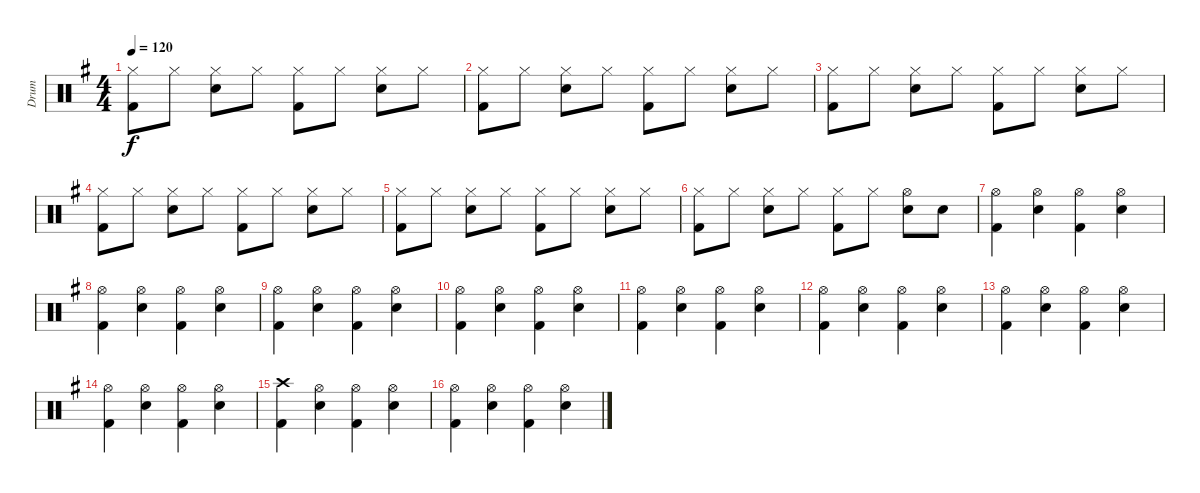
\track ("Drum" "Drum") {instrument percussion}
\staff {score}
\articulation defaults
\ts (4 4)
\tempo 120
\clef neutral
\ks g
("Hi-Hat (closed)" "Kick (hit) 2").8{dy f} "Hi-Hat (closed)".8 ("Hi-Hat (closed)" "Electric Snare (hit)").8 "Hi-Hat (closed)".8 ("Hi-Hat (closed)" "Kick (hit) 2").8 "Hi-Hat (closed)".8 ("Hi-Hat (closed)" "Electric Snare (hit)").8 "Hi-Hat (closed)".8 |
("Hi-Hat (closed)" "Kick (hit) 2").8 "Hi-Hat (closed)".8 ("Hi-Hat (closed)" "Electric Snare (hit)").8 "Hi-Hat (closed)".8 ("Hi-Hat (closed)" "Kick (hit) 2").8 "Hi-Hat (closed)".8 ("Hi-Hat (closed)" "Electric Snare (hit)").8 "Hi-Hat (closed)".8 |
("Hi-Hat (closed)" "Kick (hit) 2").8 "Hi-Hat (closed)".8 ("Hi-Hat (closed)" "Electric Snare (hit)").8 "Hi-Hat (closed)".8 ("Hi-Hat (closed)" "Kick (hit) 2").8 "Hi-Hat (closed)".8 ("Hi-Hat (closed)" "Electric Snare (hit)").8 "Hi-Hat (closed)".8 |
("Hi-Hat (closed)" "Kick (hit) 2").8 "Hi-Hat (closed)".8 ("Hi-Hat (closed)" "Electric Snare (hit)").8 "Hi-Hat (closed)".8 ("Hi-Hat (closed)" "Kick (hit) 2").8 "Hi-Hat (closed)".8 ("Hi-Hat (closed)" "Electric Snare (hit)").8 "Hi-Hat (closed)".8 |
("Hi-Hat (closed)" "Kick (hit) 2").8 "Hi-Hat (closed)".8 ("Hi-Hat (closed)" "Electric Snare (hit)").8 "Hi-Hat (closed)".8 ("Hi-Hat (closed)" "Kick (hit) 2").8 "Hi-Hat (closed)".8 ("Hi-Hat (closed)" "Electric Snare (hit)").8 "Hi-Hat (closed)".8 |
("Hi-Hat (closed)" "Kick (hit) 2").8 "Hi-Hat (closed)".8 ("Hi-Hat (closed)" "Electric Snare (hit)").8 "Hi-Hat (closed)".8 ("Hi-Hat (closed)" "Kick (hit) 2").8 "Hi-Hat (closed)".8 ("Hi-Hat (open)" "Electric Snare (hit)").8 "Electric Snare (hit)".8 |
("Hi-Hat (open)" "Kick (hit) 2").4 ("Hi-Hat (open)" "Electric Snare (hit)").4 ("Hi-Hat (open)" "Kick (hit) 2").4 ("Hi-Hat (open)" "Electric Snare (hit)").4 |
("Hi-Hat (open)" "Kick (hit) 2").4 ("Hi-Hat (open)" "Electric Snare (hit)").4 ("Hi-Hat (open)" "Kick (hit) 2").4 ("Hi-Hat (open)" "Electric Snare (hit)").4 |
("Hi-Hat (open)" "Kick (hit) 2").4 ("Hi-Hat (open)" "Electric Snare (hit)").4 ("Hi-Hat (open)" "Kick (hit) 2").4 ("Hi-Hat (open)" "Electric Snare (hit)").4 |
("Hi-Hat (open)" "Kick (hit) 2").4 ("Hi-Hat (open)" "Electric Snare (hit)").4 ("Hi-Hat (open)" "Kick (hit) 2").4 ("Hi-Hat (open)" "Electric Snare (hit)").4 |
("Hi-Hat (open)" "Kick (hit) 2").4 ("Hi-Hat (open)" "Electric Snare (hit)").4 ("Hi-Hat (open)" "Kick (hit) 2").4 ("Hi-Hat (open)" "Electric Snare (hit)").4 |
("Hi-Hat (open)" "Kick (hit) 2").4 ("Hi-Hat (open)" "Electric Snare (hit)").4 ("Hi-Hat (open)" "Kick (hit) 2").4 ("Hi-Hat (open)" "Electric Snare (hit)").4 |
("Hi-Hat (open)" "Kick (hit) 2").4 ("Hi-Hat (open)" "Electric Snare (hit)").4 ("Hi-Hat (open)" "Kick (hit) 2").4 ("Hi-Hat (open)" "Electric Snare (hit)").4 |
("Hi-Hat (open)" "Kick (hit) 2").4 ("Hi-Hat (open)" "Electric Snare (hit)").4 ("Hi-Hat (open)" "Kick (hit) 2").4 ("Hi-Hat (open)" "Electric Snare (hit)").4 |
("Kick (hit) 2" "Crash high (hit)").4 ("Hi-Hat (open)" "Electric Snare (hit)").4 ("Hi-Hat (open)" "Kick (hit) 2").4 ("Hi-Hat (open)" "Electric Snare (hit)").4 |
("Hi-Hat (open)" "Kick (hit) 2").4 ("Hi-Hat (open)" "Electric Snare (hit)").4 ("Hi-Hat (open)" "Kick (hit) 2").4 ("Hi-Hat (open)" "Electric Snare (hit)").4
